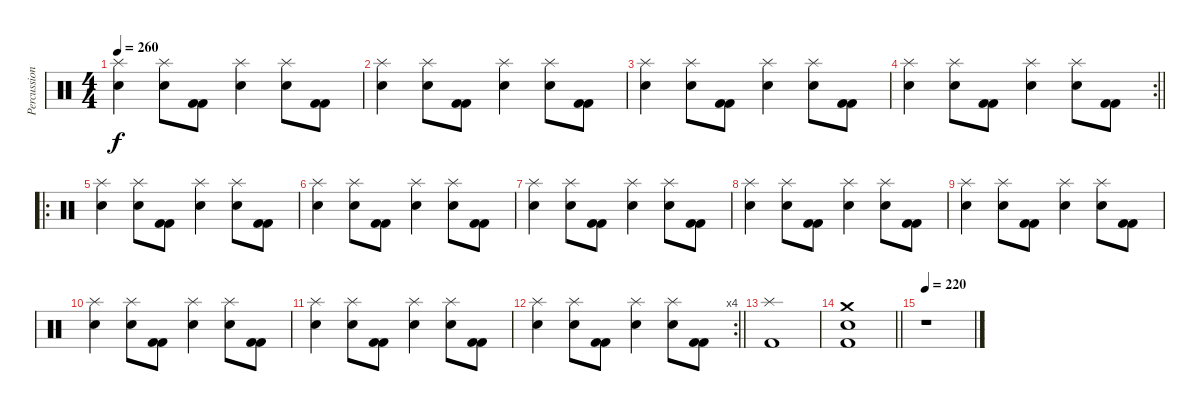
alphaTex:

\track ("Percussions" "Percussion") {instrument percussion}
\staff {score}
\articulation defaults
\ts (4 4)
\tempo 260
\clef neutral
\ks c
("Electric Snare (hit)" "Splash (hit)").4{dy f} ("Electric Snare (hit)" "Splash (hit)").8 ("Kick (hit) 2" "Kick (hit) 2").8 ("Electric Snare (hit)" "Splash (hit)").4 ("Electric Snare (hit)" "Splash (hit)").8 ("Kick (hit) 2" "Kick (hit) 2").8 |
("Electric Snare (hit)" "Splash (hit)").4 ("Electric Snare (hit)" "Splash (hit)").8 ("Kick (hit) 2" "Kick (hit) 2").8 ("Electric Snare (hit)" "Splash (hit)").4 ("Electric Snare (hit)" "Splash (hit)").8 ("Kick (hit) 2" "Kick (hit) 2").8 |
("Electric Snare (hit)" "Splash (hit)").4 ("Electric Snare (hit)" "Splash (hit)").8 ("Kick (hit) 2" "Kick (hit) 2").8 ("Electric Snare (hit)" "Splash (hit)").4 ("Electric Snare (hit)" "Splash (hit)").8 ("Kick (hit) 2" "Kick (hit) 2").8 |
\rc 2
\barLineRight lightlight
("Electric Snare (hit)" "Splash (hit)").4 ("Electric Snare (hit)" "Splash (hit)").8 ("Kick (hit) 2" "Kick (hit) 2").8 ("Electric Snare (hit)" "Splash (hit)").4 ("Electric Snare (hit)" "Splash (hit)").8 ("Kick (hit) 2" "Kick (hit) 2").8 |
\ro
\section ("" "")
("Electric Snare (hit)" "Splash (hit)").4 ("Electric Snare (hit)" "Splash (hit)").8 ("Kick (hit) 2" "Kick (hit) 2").8 ("Electric Snare (hit)" "Splash (hit)").4 ("Electric Snare (hit)" "Splash (hit)").8 ("Kick (hit) 2" "Kick (hit) 2").8 |
("Electric Snare (hit)" "Splash (hit)").4 ("Electric Snare (hit)" "Splash (hit)").8 ("Kick (hit) 2" "Kick (hit) 2").8 ("Electric Snare (hit)" "Splash (hit)").4 ("Electric Snare (hit)" "Splash (hit)").8 ("Kick (hit) 2" "Kick (hit) 2").8 |
("Electric Snare (hit)" "Splash (hit)").4 ("Electric Snare (hit)" "Splash (hit)").8 ("Kick (hit) 2" "Kick (hit) 2").8 ("Electric Snare (hit)" "Splash (hit)").4 ("Electric Snare (hit)" "Splash (hit)").8 ("Kick (hit) 2" "Kick (hit) 2").8 |
("Electric Snare (hit)" "Splash (hit)").4 ("Electric Snare (hit)" "Splash (hit)").8 ("Kick (hit) 2" "Kick (hit) 2").8 ("Electric Snare (hit)" "Splash (hit)").4 ("Electric Snare (hit)" "Splash (hit)").8 ("Kick (hit) 2" "Kick (hit) 2").8 |
("Electric Snare (hit)" "Splash (hit)").4 ("Electric Snare (hit)" "Splash (hit)").8 ("Kick (hit) 2" "Kick (hit) 2").8 ("Electric Snare (hit)" "Splash (hit)").4 ("Electric Snare (hit)" "Splash (hit)").8 ("Kick (hit) 2" "Kick (hit) 2").8 |
("Electric Snare (hit)" "Splash (hit)").4 ("Electric Snare (hit)" "Splash (hit)").8 ("Kick (hit) 2" "Kick (hit) 2").8 ("Electric Snare (hit)" "Splash (hit)").4 ("Electric Snare (hit)" "Splash (hit)").8 ("Kick (hit) 2" "Kick (hit) 2").8 |
("Electric Snare (hit)" "Splash (hit)").4 ("Electric Snare (hit)" "Splash (hit)").8 ("Kick (hit) 2" "Kick (hit) 2").8 ("Electric Snare (hit)" "Splash (hit)").4 ("Electric Snare (hit)" "Splash (hit)").8 ("Kick (hit) 2" "Kick (hit) 2").8 |
\rc 4
\barLineRight lightlight
("Electric Snare (hit)" "Splash (hit)").4 ("Electric Snare (hit)" "Splash (hit)").8 ("Kick (hit) 2" "Kick (hit) 2").8 ("Electric Snare (hit)" "Splash (hit)").4 ("Electric Snare (hit)" "Splash (hit)").8 ("Kick (hit) 2" "Kick (hit) 2").8 |
\section ("" "")
("Kick (hit) 2" "Splash (hit)").1 |
\barLineRight lightlight
("Electric Snare (hit)" "Kick (hit) 2" "Crash medium (hit)").1 |
\section ("" "")
\tempo 220
r.1
